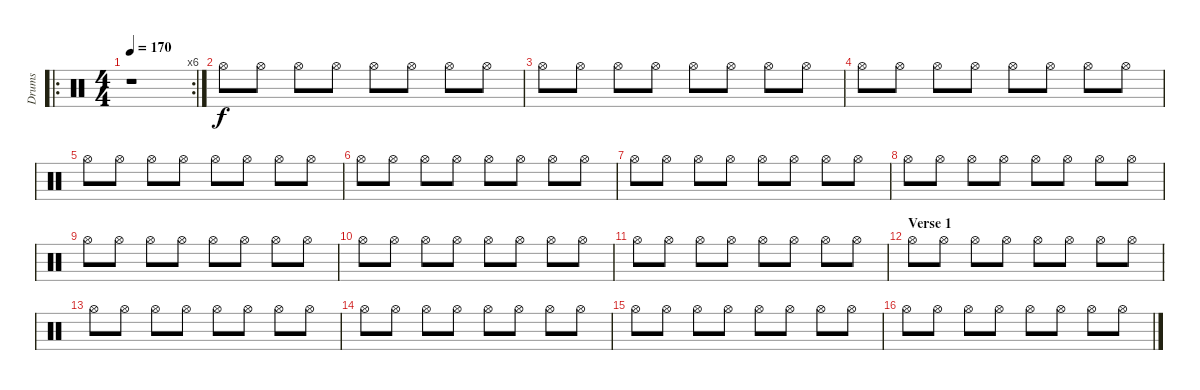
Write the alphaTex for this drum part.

\track ("Drums" "Drums") {instrument percussion}
\staff {score}
\articulation defaults
\ro
\rc 6
\ts (4 4)
\tempo 170
\clef neutral
\ks c
r.1{dy f} |
"Hi-Hat (open)".8 "Hi-Hat (open)".8 "Hi-Hat (open)".8 "Hi-Hat (open)".8 "Hi-Hat (open)".8 "Hi-Hat (open)".8 "Hi-Hat (open)".8 "Hi-Hat (open)".8 |
"Hi-Hat (open)".8 "Hi-Hat (open)".8 "Hi-Hat (open)".8 "Hi-Hat (open)".8 "Hi-Hat (open)".8 "Hi-Hat (open)".8 "Hi-Hat (open)".8 "Hi-Hat (open)".8 |
"Hi-Hat (open)".8 "Hi-Hat (open)".8 "Hi-Hat (open)".8 "Hi-Hat (open)".8 "Hi-Hat (open)".8 "Hi-Hat (open)".8 "Hi-Hat (open)".8 "Hi-Hat (open)".8 |
"Hi-Hat (open)".8 "Hi-Hat (open)".8 "Hi-Hat (open)".8 "Hi-Hat (open)".8 "Hi-Hat (open)".8 "Hi-Hat (open)".8 "Hi-Hat (open)".8 "Hi-Hat (open)".8 |
"Hi-Hat (open)".8 "Hi-Hat (open)".8 "Hi-Hat (open)".8 "Hi-Hat (open)".8 "Hi-Hat (open)".8 "Hi-Hat (open)".8 "Hi-Hat (open)".8 "Hi-Hat (open)".8 |
"Hi-Hat (open)".8 "Hi-Hat (open)".8 "Hi-Hat (open)".8 "Hi-Hat (open)".8 "Hi-Hat (open)".8 "Hi-Hat (open)".8 "Hi-Hat (open)".8 "Hi-Hat (open)".8 |
"Hi-Hat (open)".8 "Hi-Hat (open)".8 "Hi-Hat (open)".8 "Hi-Hat (open)".8 "Hi-Hat (open)".8 "Hi-Hat (open)".8 "Hi-Hat (open)".8 "Hi-Hat (open)".8 |
"Hi-Hat (open)".8 "Hi-Hat (open)".8 "Hi-Hat (open)".8 "Hi-Hat (open)".8 "Hi-Hat (open)".8 "Hi-Hat (open)".8 "Hi-Hat (open)".8 "Hi-Hat (open)".8 |
"Hi-Hat (open)".8 "Hi-Hat (open)".8 "Hi-Hat (open)".8 "Hi-Hat (open)".8 "Hi-Hat (open)".8 "Hi-Hat (open)".8 "Hi-Hat (open)".8 "Hi-Hat (open)".8 |
"Hi-Hat (open)".8 "Hi-Hat (open)".8 "Hi-Hat (open)".8 "Hi-Hat (open)".8 "Hi-Hat (open)".8 "Hi-Hat (open)".8 "Hi-Hat (open)".8 "Hi-Hat (open)".8 |
\section ("" "Verse 1")
"Hi-Hat (open)".8 "Hi-Hat (open)".8 "Hi-Hat (open)".8 "Hi-Hat (open)".8 "Hi-Hat (open)".8 "Hi-Hat (open)".8 "Hi-Hat (open)".8 "Hi-Hat (open)".8 |
"Hi-Hat (open)".8 "Hi-Hat (open)".8 "Hi-Hat (open)".8 "Hi-Hat (open)".8 "Hi-Hat (open)".8 "Hi-Hat (open)".8 "Hi-Hat (open)".8 "Hi-Hat (open)".8 |
"Hi-Hat (open)".8 "Hi-Hat (open)".8 "Hi-Hat (open)".8 "Hi-Hat (open)".8 "Hi-Hat (open)".8 "Hi-Hat (open)".8 "Hi-Hat (open)".8 "Hi-Hat (open)".8 |
"Hi-Hat (open)".8 "Hi-Hat (open)".8 "Hi-Hat (open)".8 "Hi-Hat (open)".8 "Hi-Hat (open)".8 "Hi-Hat (open)".8 "Hi-Hat (open)".8 "Hi-Hat (open)".8 |
"Hi-Hat (open)".8 "Hi-Hat (open)".8 "Hi-Hat (open)".8 "Hi-Hat (open)".8 "Hi-Hat (open)".8 "Hi-Hat (open)".8 "Hi-Hat (open)".8 "Hi-Hat (open)".8
